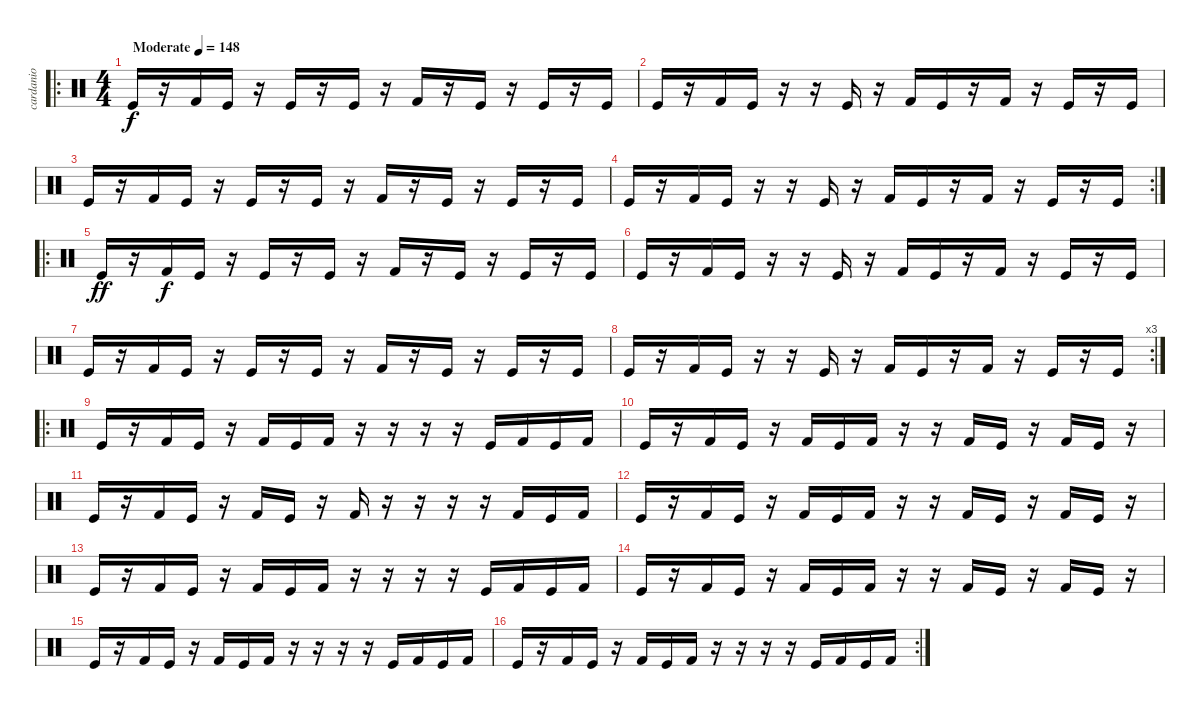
\track ("cardanio" "cardanio") {instrument percussion}
\staff {score}
\articulation defaults
\ro
\ts (4 4)
\tempo (148 "Moderate")
\clef neutral
\ks c "Kick (hit)".16{dy f}
r.16 "Kick (hit) 2".16 "Kick (hit)".16 r.16 "Kick (hit)".16 r.16 "Kick (hit)".16 r.16 "Kick (hit) 2".16 r.16 "Kick (hit)".16 r.16 "Kick (hit)".16 r.16 "Kick (hit)".16 |
"Kick (hit)".16 r.16 "Kick (hit) 2".16 "Kick (hit)".16 r.16 r.16 "Kick (hit)".16 r.16 "Kick (hit) 2".16 "Kick (hit)".16 r.16 "Kick (hit) 2".16 r.16 "Kick (hit)".16 r.16 "Kick (hit)".16 |
"Kick (hit)".16 r.16 "Kick (hit) 2".16 "Kick (hit)".16 r.16 "Kick (hit)".16 r.16 "Kick (hit)".16 r.16 "Kick (hit) 2".16 r.16 "Kick (hit)".16 r.16 "Kick (hit)".16 r.16 "Kick (hit)".16 |
\rc 2 "Kick (hit)".16
r.16 "Kick (hit) 2".16 "Kick (hit)".16 r.16 r.16 "Kick (hit)".16 r.16 "Kick (hit) 2".16 "Kick (hit)".16 r.16 "Kick (hit) 2".16 r.16 "Kick (hit)".16 r.16 "Kick (hit)".16 |
\ro "Kick (hit)".16{dy ff}
r.16 "Kick (hit) 2".16{dy f} "Kick (hit)".16 r.16 "Kick (hit)".16 r.16 "Kick (hit)".16 r.16 "Kick (hit) 2".16 r.16 "Kick (hit)".16 r.16 "Kick (hit)".16 r.16 "Kick (hit)".16 |
"Kick (hit)".16 r.16 "Kick (hit) 2".16 "Kick (hit)".16 r.16 r.16 "Kick (hit)".16 r.16 "Kick (hit) 2".16 "Kick (hit)".16 r.16 "Kick (hit) 2".16 r.16 "Kick (hit)".16 r.16 "Kick (hit)".16 |
"Kick (hit)".16 r.16 "Kick (hit) 2".16 "Kick (hit)".16 r.16 "Kick (hit)".16 r.16 "Kick (hit)".16 r.16 "Kick (hit) 2".16 r.16 "Kick (hit)".16 r.16 "Kick (hit)".16 r.16 "Kick (hit)".16 |
\rc 3 "Kick (hit)".16
r.16 "Kick (hit) 2".16 "Kick (hit)".16 r.16 r.16 "Kick (hit)".16 r.16 "Kick (hit) 2".16 "Kick (hit)".16 r.16 "Kick (hit) 2".16 r.16 "Kick (hit)".16 r.16 "Kick (hit)".16 |
\ro "Kick (hit)".16
r.16 "Kick (hit) 2".16 "Kick (hit)".16 r.16 "Kick (hit) 2".16 "Kick (hit)".16 "Kick (hit) 2".16 r.16 r.16 r.16 r.16 "Kick (hit)".16 "Kick (hit) 2".16 "Kick (hit)".16 "Kick (hit) 2".16 |
"Kick (hit)".16 r.16 "Kick (hit) 2".16 "Kick (hit)".16 r.16 "Kick (hit) 2".16 "Kick (hit)".16 "Kick (hit) 2".16 r.16 r.16 "Kick (hit) 2".16 "Kick (hit)".16 r.16 "Kick (hit) 2".16 "Kick (hit)".16 r.16 |
"Kick (hit)".16 r.16 "Kick (hit) 2".16 "Kick (hit)".16 r.16 "Kick (hit) 2".16 "Kick (hit)".16 r.16 "Kick (hit) 2".16 r.16 r.16 r.16 r.16 "Kick (hit) 2".16 "Kick (hit)".16 "Kick (hit) 2".16 |
"Kick (hit)".16 r.16 "Kick (hit) 2".16 "Kick (hit)".16 r.16 "Kick (hit) 2".16 "Kick (hit)".16 "Kick (hit) 2".16 r.16 r.16 "Kick (hit) 2".16 "Kick (hit)".16 r.16 "Kick (hit) 2".16 "Kick (hit)".16 r.16 |
"Kick (hit)".16 r.16 "Kick (hit) 2".16 "Kick (hit)".16 r.16 "Kick (hit) 2".16 "Kick (hit)".16 "Kick (hit) 2".16 r.16 r.16 r.16 r.16 "Kick (hit)".16 "Kick (hit) 2".16 "Kick (hit)".16 "Kick (hit) 2".16 |
"Kick (hit)".16 r.16 "Kick (hit) 2".16 "Kick (hit)".16 r.16 "Kick (hit) 2".16 "Kick (hit)".16 "Kick (hit) 2".16 r.16 r.16 "Kick (hit) 2".16 "Kick (hit)".16 r.16 "Kick (hit) 2".16 "Kick (hit)".16 r.16 |
"Kick (hit)".16 r.16 "Kick (hit) 2".16 "Kick (hit)".16 r.16 "Kick (hit) 2".16 "Kick (hit)".16 "Kick (hit) 2".16 r.16 r.16 r.16 r.16 "Kick (hit)".16 "Kick (hit) 2".16 "Kick (hit)".16 "Kick (hit) 2".16 |
\rc 2 "Kick (hit)".16
r.16 "Kick (hit) 2".16 "Kick (hit)".16 r.16 "Kick (hit) 2".16 "Kick (hit)".16 "Kick (hit) 2".16 r.16 r.16 r.16 r.16 "Kick (hit)".16 "Kick (hit) 2".16 "Kick (hit)".16 "Kick (hit) 2".16
